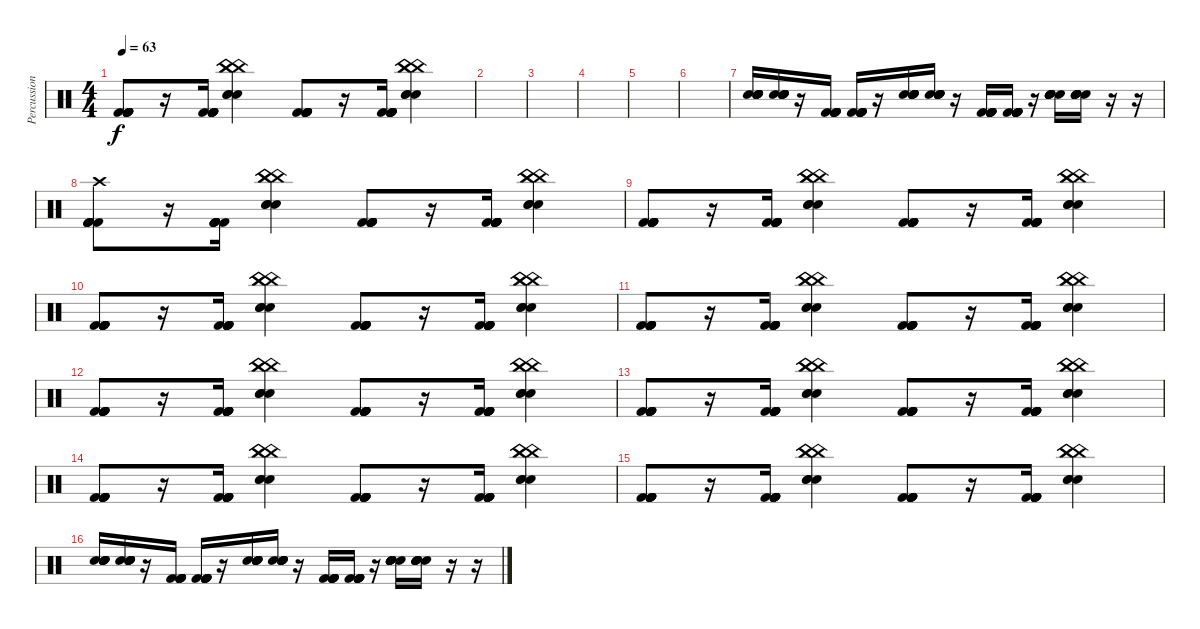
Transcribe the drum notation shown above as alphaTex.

\track ("Percussion" "Percussion") {instrument percussion}
\staff {score}
\articulation defaults
\ts (4 4)
\tempo 63
\clef neutral
\ks c
("Kick (hit) 2" "Kick (hit) 2" "Kick (hit) 2" "Kick (hit) 2" "Kick (hit) 2" "Kick (hit) 2").8{dy f} r.16 ("Kick (hit) 2" "Kick (hit) 2" "Kick (hit) 2" "Kick (hit) 2" "Kick (hit) 2" "Kick (hit) 2").16 ("China (hit)" "Snare (hit) 2" "China (hit)" "Snare (hit) 2" "China (hit)" "Snare (hit) 2").4 ("Kick (hit) 2" "Kick (hit) 2" "Kick (hit) 2" "Kick (hit) 2" "Kick (hit) 2" "Kick (hit) 2").8 r.16 ("Kick (hit) 2" "Kick (hit) 2" "Kick (hit) 2" "Kick (hit) 2" "Kick (hit) 2" "Kick (hit) 2").16 ("China (hit)" "Snare (hit) 2" "China (hit)" "Snare (hit) 2" "China (hit)" "Snare (hit) 2").4 |
|
|
|
|
|
("Electric Snare (hit)" "Electric Snare (hit)" "Electric Snare (hit)" "Electric Snare (hit)" "Electric Snare (hit)" "Electric Snare (hit)").16 ("Electric Snare (hit)" "Electric Snare (hit)" "Electric Snare (hit)" "Electric Snare (hit)" "Electric Snare (hit)" "Electric Snare (hit)").16 r.16 ("Kick (hit) 2" "Kick (hit) 2" "Kick (hit) 2" "Kick (hit) 2" "Kick (hit) 2" "Kick (hit) 2").16 ("Kick (hit) 2" "Kick (hit) 2" "Kick (hit) 2" "Kick (hit) 2" "Kick (hit) 2" "Kick (hit) 2").16 r.16 ("Electric Snare (hit)" "Electric Snare (hit)" "Electric Snare (hit)" "Electric Snare (hit)" "Electric Snare (hit)" "Electric Snare (hit)").16 ("Electric Snare (hit)" "Electric Snare (hit)" "Electric Snare (hit)" "Electric Snare (hit)" "Electric Snare (hit)" "Electric Snare (hit)").16 r.16 ("Kick (hit) 2" "Kick (hit) 2" "Kick (hit) 2" "Kick (hit) 2" "Kick (hit) 2" "Kick (hit) 2").16 ("Kick (hit) 2" "Kick (hit) 2" "Kick (hit) 2" "Kick (hit) 2" "Kick (hit) 2" "Kick (hit) 2").16 r.16 ("Electric Snare (hit)" "Electric Snare (hit)" "Electric Snare (hit)" "Electric Snare (hit)" "Electric Snare (hit)" "Electric Snare (hit)").16 ("Electric Snare (hit)" "Electric Snare (hit)" "Electric Snare (hit)" "Electric Snare (hit)" "Electric Snare (hit)" "Electric Snare (hit)").16 r.16 r.16 |
("Kick (hit) 2" "Kick (hit) 2" "Kick (hit) 2" "Kick (hit) 2" "Kick (hit) 2" "Crash high (hit)").8 r.16 ("Kick (hit) 2" "Kick (hit) 2" "Kick (hit) 2" "Kick (hit) 2" "Kick (hit) 2" "Kick (hit) 2").16 ("China (hit)" "Snare (hit) 2" "China (hit)" "Snare (hit) 2" "China (hit)" "Snare (hit) 2").4 ("Kick (hit) 2" "Kick (hit) 2" "Kick (hit) 2" "Kick (hit) 2" "Kick (hit) 2" "Kick (hit) 2").8 r.16 ("Kick (hit) 2" "Kick (hit) 2" "Kick (hit) 2" "Kick (hit) 2" "Kick (hit) 2" "Kick (hit) 2").16 ("China (hit)" "Snare (hit) 2" "China (hit)" "Snare (hit) 2" "China (hit)" "Snare (hit) 2").4 |
("Kick (hit) 2" "Kick (hit) 2" "Kick (hit) 2" "Kick (hit) 2" "Kick (hit) 2" "Kick (hit) 2").8 r.16 ("Kick (hit) 2" "Kick (hit) 2" "Kick (hit) 2" "Kick (hit) 2" "Kick (hit) 2" "Kick (hit) 2").16 ("China (hit)" "Snare (hit) 2" "China (hit)" "Snare (hit) 2" "China (hit)" "Snare (hit) 2").4 ("Kick (hit) 2" "Kick (hit) 2" "Kick (hit) 2" "Kick (hit) 2" "Kick (hit) 2" "Kick (hit) 2").8 r.16 ("Kick (hit) 2" "Kick (hit) 2" "Kick (hit) 2" "Kick (hit) 2" "Kick (hit) 2" "Kick (hit) 2").16 ("China (hit)" "Snare (hit) 2" "China (hit)" "Snare (hit) 2" "China (hit)" "Snare (hit) 2").4 |
("Kick (hit) 2" "Kick (hit) 2" "Kick (hit) 2" "Kick (hit) 2" "Kick (hit) 2" "Kick (hit) 2").8 r.16 ("Kick (hit) 2" "Kick (hit) 2" "Kick (hit) 2" "Kick (hit) 2" "Kick (hit) 2" "Kick (hit) 2").16 ("China (hit)" "Snare (hit) 2" "China (hit)" "Snare (hit) 2" "China (hit)" "Snare (hit) 2").4 ("Kick (hit) 2" "Kick (hit) 2" "Kick (hit) 2" "Kick (hit) 2" "Kick (hit) 2" "Kick (hit) 2").8 r.16 ("Kick (hit) 2" "Kick (hit) 2" "Kick (hit) 2" "Kick (hit) 2" "Kick (hit) 2" "Kick (hit) 2").16 ("China (hit)" "Snare (hit) 2" "China (hit)" "Snare (hit) 2" "China (hit)" "Snare (hit) 2").4 |
("Kick (hit) 2" "Kick (hit) 2" "Kick (hit) 2" "Kick (hit) 2" "Kick (hit) 2" "Kick (hit) 2").8 r.16 ("Kick (hit) 2" "Kick (hit) 2" "Kick (hit) 2" "Kick (hit) 2" "Kick (hit) 2" "Kick (hit) 2").16 ("China (hit)" "Snare (hit) 2" "China (hit)" "Snare (hit) 2" "China (hit)" "Snare (hit) 2").4 ("Kick (hit) 2" "Kick (hit) 2" "Kick (hit) 2" "Kick (hit) 2" "Kick (hit) 2" "Kick (hit) 2").8 r.16 ("Kick (hit) 2" "Kick (hit) 2" "Kick (hit) 2" "Kick (hit) 2" "Kick (hit) 2" "Kick (hit) 2").16 ("China (hit)" "Snare (hit) 2" "China (hit)" "Snare (hit) 2" "China (hit)" "Snare (hit) 2").4 |
("Kick (hit) 2" "Kick (hit) 2" "Kick (hit) 2" "Kick (hit) 2" "Kick (hit) 2" "Kick (hit) 2").8 r.16 ("Kick (hit) 2" "Kick (hit) 2" "Kick (hit) 2" "Kick (hit) 2" "Kick (hit) 2" "Kick (hit) 2").16 ("China (hit)" "Snare (hit) 2" "China (hit)" "Snare (hit) 2" "China (hit)" "Snare (hit) 2").4 ("Kick (hit) 2" "Kick (hit) 2" "Kick (hit) 2" "Kick (hit) 2" "Kick (hit) 2" "Kick (hit) 2").8 r.16 ("Kick (hit) 2" "Kick (hit) 2" "Kick (hit) 2" "Kick (hit) 2" "Kick (hit) 2" "Kick (hit) 2").16 ("China (hit)" "Snare (hit) 2" "China (hit)" "Snare (hit) 2" "China (hit)" "Snare (hit) 2").4 |
("Kick (hit) 2" "Kick (hit) 2" "Kick (hit) 2" "Kick (hit) 2" "Kick (hit) 2" "Kick (hit) 2").8 r.16 ("Kick (hit) 2" "Kick (hit) 2" "Kick (hit) 2" "Kick (hit) 2" "Kick (hit) 2" "Kick (hit) 2").16 ("China (hit)" "Snare (hit) 2" "China (hit)" "Snare (hit) 2" "China (hit)" "Snare (hit) 2").4 ("Kick (hit) 2" "Kick (hit) 2" "Kick (hit) 2" "Kick (hit) 2" "Kick (hit) 2" "Kick (hit) 2").8 r.16 ("Kick (hit) 2" "Kick (hit) 2" "Kick (hit) 2" "Kick (hit) 2" "Kick (hit) 2" "Kick (hit) 2").16 ("China (hit)" "Snare (hit) 2" "China (hit)" "Snare (hit) 2" "China (hit)" "Snare (hit) 2").4 |
("Kick (hit) 2" "Kick (hit) 2" "Kick (hit) 2" "Kick (hit) 2" "Kick (hit) 2" "Kick (hit) 2").8 r.16 ("Kick (hit) 2" "Kick (hit) 2" "Kick (hit) 2" "Kick (hit) 2" "Kick (hit) 2" "Kick (hit) 2").16 ("China (hit)" "Snare (hit) 2" "China (hit)" "Snare (hit) 2" "China (hit)" "Snare (hit) 2").4 ("Kick (hit) 2" "Kick (hit) 2" "Kick (hit) 2" "Kick (hit) 2" "Kick (hit) 2" "Kick (hit) 2").8 r.16 ("Kick (hit) 2" "Kick (hit) 2" "Kick (hit) 2" "Kick (hit) 2" "Kick (hit) 2" "Kick (hit) 2").16 ("China (hit)" "Snare (hit) 2" "China (hit)" "Snare (hit) 2" "China (hit)" "Snare (hit) 2").4 |
("Kick (hit) 2" "Kick (hit) 2" "Kick (hit) 2" "Kick (hit) 2" "Kick (hit) 2" "Kick (hit) 2").8 r.16 ("Kick (hit) 2" "Kick (hit) 2" "Kick (hit) 2" "Kick (hit) 2" "Kick (hit) 2" "Kick (hit) 2").16 ("China (hit)" "Snare (hit) 2" "China (hit)" "Snare (hit) 2" "China (hit)" "Snare (hit) 2").4 ("Kick (hit) 2" "Kick (hit) 2" "Kick (hit) 2" "Kick (hit) 2" "Kick (hit) 2" "Kick (hit) 2").8 r.16 ("Kick (hit) 2" "Kick (hit) 2" "Kick (hit) 2" "Kick (hit) 2" "Kick (hit) 2" "Kick (hit) 2").16 ("China (hit)" "Snare (hit) 2" "China (hit)" "Snare (hit) 2" "China (hit)" "Snare (hit) 2").4 |
("Electric Snare (hit)" "Electric Snare (hit)" "Electric Snare (hit)" "Electric Snare (hit)" "Electric Snare (hit)" "Electric Snare (hit)").16 ("Electric Snare (hit)" "Electric Snare (hit)" "Electric Snare (hit)" "Electric Snare (hit)" "Electric Snare (hit)" "Electric Snare (hit)").16 r.16 ("Kick (hit) 2" "Kick (hit) 2" "Kick (hit) 2" "Kick (hit) 2" "Kick (hit) 2" "Kick (hit) 2").16 ("Kick (hit) 2" "Kick (hit) 2" "Kick (hit) 2" "Kick (hit) 2" "Kick (hit) 2" "Kick (hit) 2").16 r.16 ("Electric Snare (hit)" "Electric Snare (hit)" "Electric Snare (hit)" "Electric Snare (hit)" "Electric Snare (hit)" "Electric Snare (hit)").16 ("Electric Snare (hit)" "Electric Snare (hit)" "Electric Snare (hit)" "Electric Snare (hit)" "Electric Snare (hit)" "Electric Snare (hit)").16 r.16 ("Kick (hit) 2" "Kick (hit) 2" "Kick (hit) 2" "Kick (hit) 2" "Kick (hit) 2" "Kick (hit) 2").16 ("Kick (hit) 2" "Kick (hit) 2" "Kick (hit) 2" "Kick (hit) 2" "Kick (hit) 2" "Kick (hit) 2").16 r.16 ("Electric Snare (hit)" "Electric Snare (hit)" "Electric Snare (hit)" "Electric Snare (hit)" "Electric Snare (hit)" "Electric Snare (hit)").16 ("Electric Snare (hit)" "Electric Snare (hit)" "Electric Snare (hit)" "Electric Snare (hit)" "Electric Snare (hit)" "Electric Snare (hit)").16 r.16 r.16
